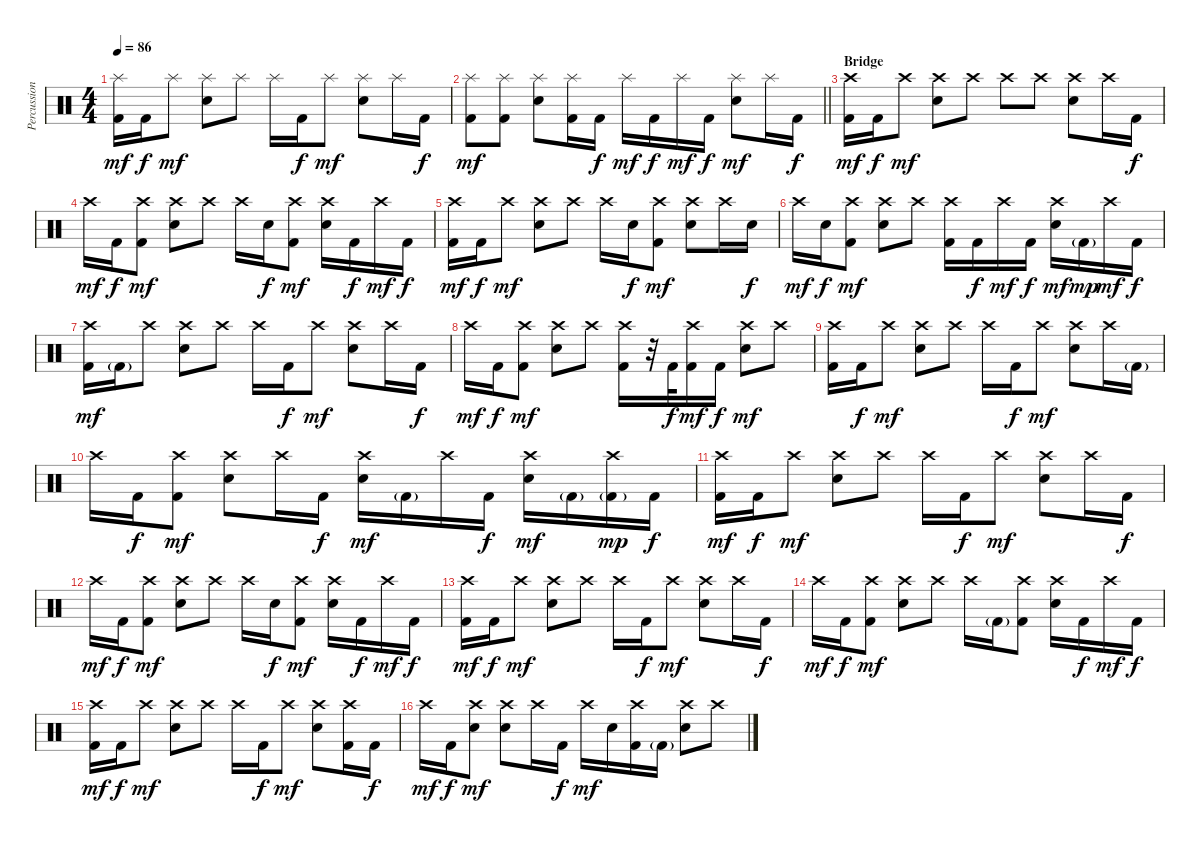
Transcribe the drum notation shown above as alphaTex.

\track ("Percussion" "Percussion") {instrument percussion}
\staff {score}
\articulation defaults
\ts (4 4)
\tempo 86
\clef neutral
\ks c
("Splash (hit)" "Kick (hit) 2").16{dy mf} "Kick (hit) 2".16{dy f} "Splash (hit)".8{dy mf} ("Splash (hit)" "Electric Snare (hit)").8 "Splash (hit)".8 "Splash (hit)".16 "Kick (hit) 2".16{dy f} "Splash (hit)".8{dy mf} ("Splash (hit)" "Electric Snare (hit)").8 "Splash (hit)".16 "Kick (hit) 2".16{dy f} |
\barLineRight lightlight
("Splash (hit)" "Kick (hit) 2").8{dy mf} ("Splash (hit)" "Kick (hit) 2").8 ("Splash (hit)" "Electric Snare (hit)").8 ("Splash (hit)" "Kick (hit) 2").16 "Kick (hit) 2".16{dy f} "Splash (hit)".16{dy mf} "Kick (hit) 2".16{dy f} "Splash (hit)".16{dy mf} "Kick (hit) 2".16{dy f} ("Splash (hit)" "Electric Snare (hit)").8{dy mf} "Splash (hit)".16 "Kick (hit) 2".16{dy f} |
\section ("" "Bridge")
("Crash high (hit)" "Kick (hit) 2").16{dy mf} "Kick (hit) 2".16{dy f} "Crash high (hit)".8{dy mf} ("Crash high (hit)" "Electric Snare (hit)").8 "Crash high (hit)".8 "Crash high (hit)".8 "Crash high (hit)".8 ("Crash high (hit)" "Electric Snare (hit)").8 "Crash high (hit)".16 "Kick (hit) 2".16{dy f} |
"Crash high (hit)".16{dy mf} "Kick (hit) 2".16{dy f} ("Crash high (hit)" "Kick (hit) 2").8{dy mf} ("Crash high (hit)" "Electric Snare (hit)").8 "Crash high (hit)".8 "Crash high (hit)".16 "Electric Snare (hit)".16{dy f} ("Crash high (hit)" "Kick (hit) 2").8{dy mf} ("Crash high (hit)" "Electric Snare (hit)").16 "Kick (hit) 2".16{dy f} "Crash high (hit)".16{dy mf} "Kick (hit) 2".16{dy f} |
("Crash high (hit)" "Kick (hit) 2").16{dy mf} "Kick (hit) 2".16{dy f} "Crash high (hit)".8{dy mf} ("Crash high (hit)" "Electric Snare (hit)").8 "Crash high (hit)".8 "Crash high (hit)".16 "Electric Snare (hit)".16{dy f} ("Crash high (hit)" "Kick (hit) 2").8{dy mf} ("Crash high (hit)" "Electric Snare (hit)").8 "Crash high (hit)".16 "Electric Snare (hit)".16{dy f} |
"Crash high (hit)".16{dy mf} "Electric Snare (hit)".16{dy f} ("Crash high (hit)" "Kick (hit) 2").8{dy mf} ("Crash high (hit)" "Electric Snare (hit)").8 "Crash high (hit)".8 ("Crash high (hit)" "Kick (hit) 2").16 "Kick (hit) 2".16{dy f} "Crash high (hit)".16{dy mf} "Kick (hit) 2".16{dy f} ("Crash high (hit)" "Electric Snare (hit)").16{dy mf} "Kick (hit) 2"{g}.16{dy mp} "Crash high (hit)".16{dy mf} "Kick (hit) 2".16{dy f} |
("Crash high (hit)" "Kick (hit) 2").16{dy mf} "Kick (hit) 2"{g}.16 "Crash high (hit)".8 ("Crash high (hit)" "Electric Snare (hit)").8 "Crash high (hit)".8 "Crash high (hit)".16 "Kick (hit) 2".16{dy f} "Crash high (hit)".8{dy mf} ("Crash high (hit)" "Electric Snare (hit)").8 "Crash high (hit)".16 "Kick (hit) 2".16{dy f} |
"Crash high (hit)".16{dy mf} "Kick (hit) 2".16{dy f} ("Crash high (hit)" "Kick (hit) 2").8{dy mf} ("Crash high (hit)" "Electric Snare (hit)").8 "Crash high (hit)".8 ("Crash high (hit)" "Kick (hit) 2").16 r.32 "Kick (hit) 2".32{dy f} ("Crash high (hit)" "Kick (hit) 2").16{dy mf} "Kick (hit) 2".16{dy f} ("Crash high (hit)" "Electric Snare (hit)").8{dy mf} "Crash high (hit)".8 |
("Crash high (hit)" "Kick (hit) 2").16 "Kick (hit) 2".16{dy f} "Crash high (hit)".8{dy mf} ("Crash high (hit)" "Electric Snare (hit)").8 "Crash high (hit)".8 "Crash high (hit)".16 "Kick (hit) 2".16{dy f} "Crash high (hit)".8{dy mf} ("Crash high (hit)" "Electric Snare (hit)").8 "Crash high (hit)".16 "Kick (hit) 2"{g}.16 |
"Crash high (hit)".16 "Kick (hit) 2".16{dy f} ("Crash high (hit)" "Kick (hit) 2").8{dy mf} ("Crash high (hit)" "Electric Snare (hit)").8 "Crash high (hit)".16 "Kick (hit) 2".16{dy f} ("Crash high (hit)" "Electric Snare (hit)").16{dy mf} "Kick (hit) 2"{g}.16 "Crash high (hit)".16 "Kick (hit) 2".16{dy f} ("Crash high (hit)" "Electric Snare (hit)").16{dy mf} "Kick (hit) 2"{g}.16 ("Crash high (hit)" "Kick (hit) 2"{g}).16{dy mp} "Kick (hit) 2".16{dy f} |
("Crash high (hit)" "Kick (hit) 2").16{dy mf} "Kick (hit) 2".16{dy f} "Crash high (hit)".8{dy mf} ("Crash high (hit)" "Electric Snare (hit)").8 "Crash high (hit)".8 "Crash high (hit)".16 "Kick (hit) 2".16{dy f} "Crash high (hit)".8{dy mf} ("Crash high (hit)" "Electric Snare (hit)").8 "Crash high (hit)".16 "Kick (hit) 2".16{dy f} |
"Crash high (hit)".16{dy mf} "Kick (hit) 2".16{dy f} ("Crash high (hit)" "Kick (hit) 2").8{dy mf} ("Crash high (hit)" "Electric Snare (hit)").8 "Crash high (hit)".8 "Crash high (hit)".16 "Electric Snare (hit)".16{dy f} ("Crash high (hit)" "Kick (hit) 2").8{dy mf} ("Crash high (hit)" "Electric Snare (hit)").16 "Kick (hit) 2".16{dy f} "Crash high (hit)".16{dy mf} "Kick (hit) 2".16{dy f} |
("Crash high (hit)" "Kick (hit) 2").16{dy mf} "Kick (hit) 2".16{dy f} "Crash high (hit)".8{dy mf} ("Crash high (hit)" "Electric Snare (hit)").8 "Crash high (hit)".8 "Crash high (hit)".16 "Kick (hit) 2".16{dy f} "Crash high (hit)".8{dy mf} ("Crash high (hit)" "Electric Snare (hit)").8 "Crash high (hit)".16 "Kick (hit) 2".16{dy f} |
"Crash high (hit)".16{dy mf} "Kick (hit) 2".16{dy f} ("Crash high (hit)" "Kick (hit) 2").8{dy mf} ("Crash high (hit)" "Electric Snare (hit)").8 "Crash high (hit)".8 "Crash high (hit)".16 "Kick (hit) 2"{g}.16 ("Crash high (hit)" "Kick (hit) 2").8 ("Crash high (hit)" "Electric Snare (hit)").16 "Kick (hit) 2".16{dy f} "Crash high (hit)".16{dy mf} "Kick (hit) 2".16{dy f} |
("Crash high (hit)" "Kick (hit) 2").16{dy mf} "Kick (hit) 2".16{dy f} "Crash high (hit)".8{dy mf} ("Crash high (hit)" "Electric Snare (hit)").8 "Crash high (hit)".8 "Crash high (hit)".16 "Kick (hit) 2".16{dy f} "Crash high (hit)".8{dy mf} ("Crash high (hit)" "Electric Snare (hit)").8 ("Crash high (hit)" "Kick (hit) 2").16 "Kick (hit) 2".16{dy f} |
"Crash high (hit)".16{dy mf} "Kick (hit) 2".16{dy f} ("Crash high (hit)" "Electric Snare (hit)").8{dy mf} ("Crash high (hit)" "Electric Snare (hit)").8 "Crash high (hit)".16 "Kick (hit) 2".16{dy f} "Crash high (hit)".16{dy mf} "Electric Snare (hit)".16 ("Crash high (hit)" "Kick (hit) 2").16 "Kick (hit) 2"{g}.16 ("Crash high (hit)" "Electric Snare (hit)").8 "Crash high (hit)".8
